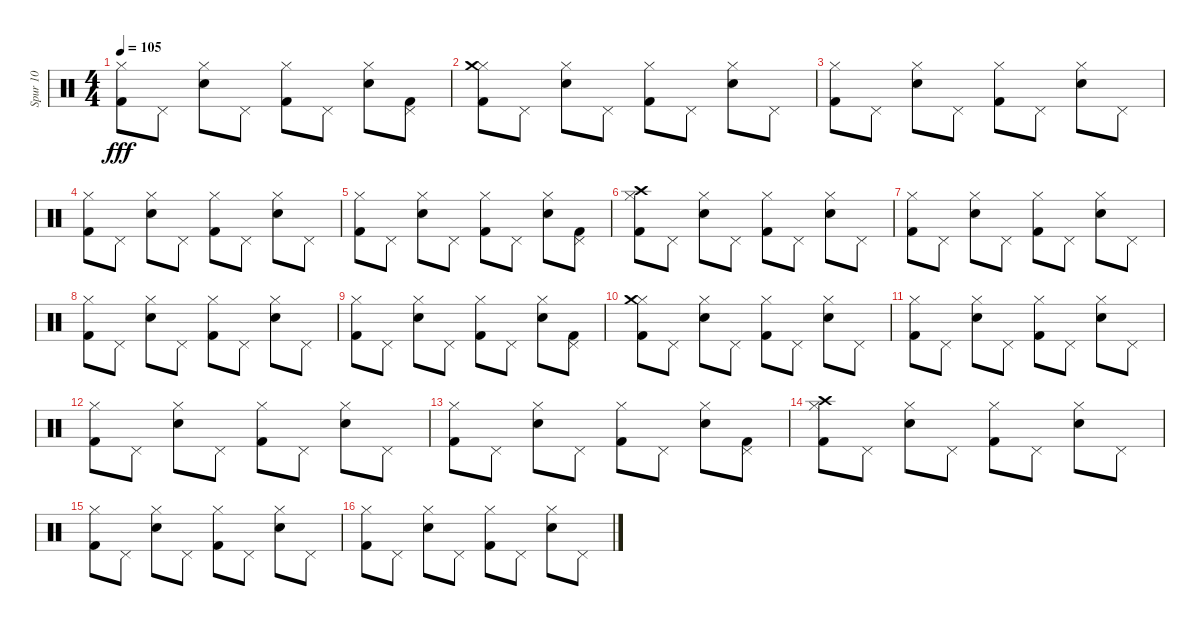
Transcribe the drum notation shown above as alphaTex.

\track ("Spur 10" "Spur 10") {instrument percussion}
\staff {score}
\articulation defaults
\ts (4 4)
\tempo 105
\clef neutral
\ks c
("Kick (hit) 2" "Hi-Hat (closed)").8{dy fff} "Pedal Hi-Hat (hit)".8 ("Electric Snare (hit)" "Hi-Hat (closed)").8 "Pedal Hi-Hat (hit)".8 ("Hi-Hat (closed)" "Kick (hit) 2").8 "Pedal Hi-Hat (hit)".8 ("Electric Snare (hit)" "Hi-Hat (closed)").8 ("Pedal Hi-Hat (hit)" "Kick (hit) 2").8 |
("Hi-Hat (closed)" "Crash medium (hit)" "Kick (hit) 2").8 "Pedal Hi-Hat (hit)".8 ("Hi-Hat (closed)" "Electric Snare (hit)").8 "Pedal Hi-Hat (hit)".8 ("Hi-Hat (closed)" "Kick (hit) 2").8 "Pedal Hi-Hat (hit)".8 ("Electric Snare (hit)" "Hi-Hat (closed)").8 "Pedal Hi-Hat (hit)".8 |
("Kick (hit) 2" "Hi-Hat (closed)").8 "Pedal Hi-Hat (hit)".8 ("Electric Snare (hit)" "Hi-Hat (closed)").8 "Pedal Hi-Hat (hit)".8 ("Hi-Hat (closed)" "Kick (hit) 2").8 "Pedal Hi-Hat (hit)".8 ("Electric Snare (hit)" "Hi-Hat (closed)").8 "Pedal Hi-Hat (hit)".8 |
("Kick (hit) 2" "Hi-Hat (closed)").8 "Pedal Hi-Hat (hit)".8 ("Electric Snare (hit)" "Hi-Hat (closed)").8 "Pedal Hi-Hat (hit)".8 ("Kick (hit) 2" "Hi-Hat (closed)").8 "Pedal Hi-Hat (hit)".8 ("Electric Snare (hit)" "Hi-Hat (closed)").8 "Pedal Hi-Hat (hit)".8 |
("Kick (hit) 2" "Hi-Hat (closed)").8 "Pedal Hi-Hat (hit)".8 ("Electric Snare (hit)" "Hi-Hat (closed)").8 "Pedal Hi-Hat (hit)".8 ("Hi-Hat (closed)" "Kick (hit) 2").8 "Pedal Hi-Hat (hit)".8 ("Electric Snare (hit)" "Hi-Hat (closed)").8 ("Pedal Hi-Hat (hit)" "Kick (hit) 2").8 |
("Hi-Hat (closed)" "Crash high (hit)" "Kick (hit) 2").8 "Pedal Hi-Hat (hit)".8 ("Hi-Hat (closed)" "Electric Snare (hit)").8 "Pedal Hi-Hat (hit)".8 ("Hi-Hat (closed)" "Kick (hit) 2").8 "Pedal Hi-Hat (hit)".8 ("Electric Snare (hit)" "Hi-Hat (closed)").8 "Pedal Hi-Hat (hit)".8 |
("Kick (hit) 2" "Hi-Hat (closed)").8 "Pedal Hi-Hat (hit)".8 ("Electric Snare (hit)" "Hi-Hat (closed)").8 "Pedal Hi-Hat (hit)".8 ("Hi-Hat (closed)" "Kick (hit) 2").8 "Pedal Hi-Hat (hit)".8 ("Electric Snare (hit)" "Hi-Hat (closed)").8 "Pedal Hi-Hat (hit)".8 |
("Kick (hit) 2" "Hi-Hat (closed)").8 "Pedal Hi-Hat (hit)".8 ("Electric Snare (hit)" "Hi-Hat (closed)").8 "Pedal Hi-Hat (hit)".8 ("Kick (hit) 2" "Hi-Hat (closed)").8 "Pedal Hi-Hat (hit)".8 ("Electric Snare (hit)" "Hi-Hat (closed)").8 "Pedal Hi-Hat (hit)".8 |
("Kick (hit) 2" "Hi-Hat (closed)").8 "Pedal Hi-Hat (hit)".8 ("Electric Snare (hit)" "Hi-Hat (closed)").8 "Pedal Hi-Hat (hit)".8 ("Hi-Hat (closed)" "Kick (hit) 2").8 "Pedal Hi-Hat (hit)".8 ("Electric Snare (hit)" "Hi-Hat (closed)").8 ("Pedal Hi-Hat (hit)" "Kick (hit) 2").8 |
("Hi-Hat (closed)" "Crash medium (hit)" "Kick (hit) 2").8 "Pedal Hi-Hat (hit)".8 ("Hi-Hat (closed)" "Electric Snare (hit)").8 "Pedal Hi-Hat (hit)".8 ("Hi-Hat (closed)" "Kick (hit) 2").8 "Pedal Hi-Hat (hit)".8 ("Electric Snare (hit)" "Hi-Hat (closed)").8 "Pedal Hi-Hat (hit)".8 |
("Kick (hit) 2" "Hi-Hat (closed)").8 "Pedal Hi-Hat (hit)".8 ("Electric Snare (hit)" "Hi-Hat (closed)").8 "Pedal Hi-Hat (hit)".8 ("Hi-Hat (closed)" "Kick (hit) 2").8 "Pedal Hi-Hat (hit)".8 ("Electric Snare (hit)" "Hi-Hat (closed)").8 "Pedal Hi-Hat (hit)".8 |
("Kick (hit) 2" "Hi-Hat (closed)").8 "Pedal Hi-Hat (hit)".8 ("Electric Snare (hit)" "Hi-Hat (closed)").8 "Pedal Hi-Hat (hit)".8 ("Kick (hit) 2" "Hi-Hat (closed)").8 "Pedal Hi-Hat (hit)".8 ("Electric Snare (hit)" "Hi-Hat (closed)").8 "Pedal Hi-Hat (hit)".8 |
("Kick (hit) 2" "Hi-Hat (closed)").8 "Pedal Hi-Hat (hit)".8 ("Electric Snare (hit)" "Hi-Hat (closed)").8 "Pedal Hi-Hat (hit)".8 ("Hi-Hat (closed)" "Kick (hit) 2").8 "Pedal Hi-Hat (hit)".8 ("Electric Snare (hit)" "Hi-Hat (closed)").8 ("Pedal Hi-Hat (hit)" "Kick (hit) 2").8 |
("Hi-Hat (closed)" "Crash high (hit)" "Kick (hit) 2").8 "Pedal Hi-Hat (hit)".8 ("Hi-Hat (closed)" "Electric Snare (hit)").8 "Pedal Hi-Hat (hit)".8 ("Hi-Hat (closed)" "Kick (hit) 2").8 "Pedal Hi-Hat (hit)".8 ("Electric Snare (hit)" "Hi-Hat (closed)").8 "Pedal Hi-Hat (hit)".8 |
("Kick (hit) 2" "Hi-Hat (closed)").8 "Pedal Hi-Hat (hit)".8 ("Electric Snare (hit)" "Hi-Hat (closed)").8 "Pedal Hi-Hat (hit)".8 ("Hi-Hat (closed)" "Kick (hit) 2").8 "Pedal Hi-Hat (hit)".8 ("Electric Snare (hit)" "Hi-Hat (closed)").8 "Pedal Hi-Hat (hit)".8 |
("Kick (hit) 2" "Hi-Hat (closed)").8 "Pedal Hi-Hat (hit)".8 ("Electric Snare (hit)" "Hi-Hat (closed)").8 "Pedal Hi-Hat (hit)".8 ("Kick (hit) 2" "Hi-Hat (closed)").8 "Pedal Hi-Hat (hit)".8 ("Electric Snare (hit)" "Hi-Hat (closed)").8 "Pedal Hi-Hat (hit)".8
